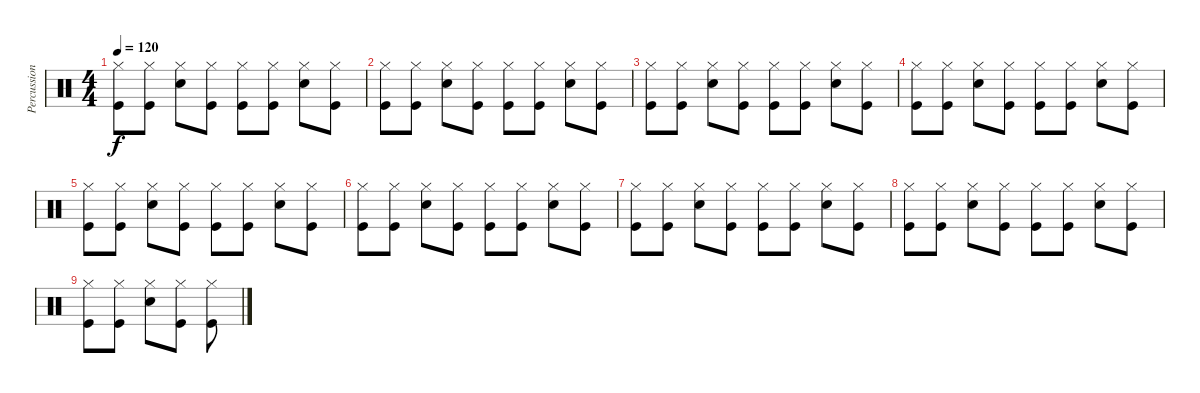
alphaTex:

\track ("Percussion" "Percussion") {instrument percussion}
\staff {score}
\articulation defaults
\ts (4 4)
\tempo 120
\clef neutral
\ks c
("Hi-Hat (closed)" "Kick (hit)").8{dy f} ("Hi-Hat (closed)" "Kick (hit)").8 ("Hi-Hat (closed)" "Snare (hit) 2").8 ("Hi-Hat (closed)" "Kick (hit)").8 ("Hi-Hat (closed)" "Kick (hit)").8 ("Hi-Hat (closed)" "Kick (hit)").8 ("Hi-Hat (closed)" "Snare (hit) 2").8 ("Hi-Hat (closed)" "Kick (hit)").8 |
("Hi-Hat (closed)" "Kick (hit)").8 ("Hi-Hat (closed)" "Kick (hit)").8 ("Hi-Hat (closed)" "Snare (hit) 2").8 ("Hi-Hat (closed)" "Kick (hit)").8 ("Hi-Hat (closed)" "Kick (hit)").8 ("Hi-Hat (closed)" "Kick (hit)").8 ("Hi-Hat (closed)" "Snare (hit) 2").8 ("Hi-Hat (closed)" "Kick (hit)").8 |
("Hi-Hat (closed)" "Kick (hit)").8 ("Hi-Hat (closed)" "Kick (hit)").8 ("Hi-Hat (closed)" "Snare (hit) 2").8 ("Hi-Hat (closed)" "Kick (hit)").8 ("Hi-Hat (closed)" "Kick (hit)").8 ("Hi-Hat (closed)" "Kick (hit)").8 ("Hi-Hat (closed)" "Snare (hit) 2").8 ("Hi-Hat (closed)" "Kick (hit)").8 |
("Hi-Hat (closed)" "Kick (hit)").8 ("Hi-Hat (closed)" "Kick (hit)").8 ("Hi-Hat (closed)" "Snare (hit) 2").8 ("Hi-Hat (closed)" "Kick (hit)").8 ("Hi-Hat (closed)" "Kick (hit)").8 ("Hi-Hat (closed)" "Kick (hit)").8 ("Hi-Hat (closed)" "Snare (hit) 2").8 ("Hi-Hat (closed)" "Kick (hit)").8 |
("Hi-Hat (closed)" "Kick (hit)").8 ("Hi-Hat (closed)" "Kick (hit)").8 ("Hi-Hat (closed)" "Snare (hit) 2").8 ("Hi-Hat (closed)" "Kick (hit)").8 ("Hi-Hat (closed)" "Kick (hit)").8 ("Hi-Hat (closed)" "Kick (hit)").8 ("Hi-Hat (closed)" "Snare (hit) 2").8 ("Hi-Hat (closed)" "Kick (hit)").8 |
("Hi-Hat (closed)" "Kick (hit)").8 ("Hi-Hat (closed)" "Kick (hit)").8 ("Hi-Hat (closed)" "Snare (hit) 2").8 ("Hi-Hat (closed)" "Kick (hit)").8 ("Hi-Hat (closed)" "Kick (hit)").8 ("Hi-Hat (closed)" "Kick (hit)").8 ("Hi-Hat (closed)" "Snare (hit) 2").8 ("Hi-Hat (closed)" "Kick (hit)").8 |
("Hi-Hat (closed)" "Kick (hit)").8 ("Hi-Hat (closed)" "Kick (hit)").8 ("Hi-Hat (closed)" "Snare (hit) 2").8 ("Hi-Hat (closed)" "Kick (hit)").8 ("Hi-Hat (closed)" "Kick (hit)").8 ("Hi-Hat (closed)" "Kick (hit)").8 ("Hi-Hat (closed)" "Snare (hit) 2").8 ("Hi-Hat (closed)" "Kick (hit)").8 |
("Hi-Hat (closed)" "Kick (hit)").8 ("Hi-Hat (closed)" "Kick (hit)").8 ("Hi-Hat (closed)" "Snare (hit) 2").8 ("Hi-Hat (closed)" "Kick (hit)").8 ("Hi-Hat (closed)" "Kick (hit)").8 ("Hi-Hat (closed)" "Kick (hit)").8 ("Hi-Hat (closed)" "Snare (hit) 2").8 ("Hi-Hat (closed)" "Kick (hit)").8 |
("Hi-Hat (closed)" "Kick (hit)").8 ("Hi-Hat (closed)" "Kick (hit)").8 ("Hi-Hat (closed)" "Snare (hit) 2").8 ("Hi-Hat (closed)" "Kick (hit)").8 ("Hi-Hat (closed)" "Kick (hit)").8
